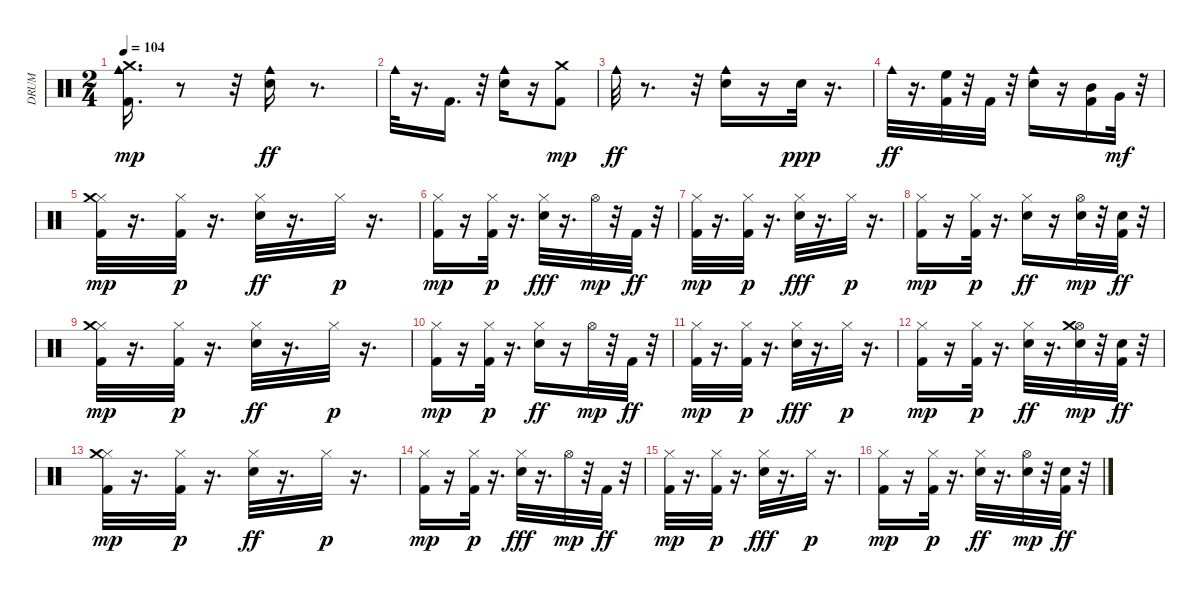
\track ("DRUM    " "DRUM    ") {instrument percussion}
\staff {score}
\articulation defaults
\ts (2 4)
\tempo 104
\clef neutral
\ks c
("Cowbell medium (hit)" "Kick (hit) 2" "Crash medium (hit)").16{d dy mp} r.8 r.32 ("Cowbell medium (hit)" "Snare (hit) 2").16{dy ff} r.8{d} |
"Cowbell medium (hit)".32 r.16{d} "Kick (hit) 2".16{d} r.32 ("Cowbell medium (hit)" "Snare (hit) 2").16 r.16 ("Kick (hit) 2" "Crash medium (hit)").8{dy mp} |
"Cowbell medium (hit)".32{dy ff} r.8{d} r.32 ("Cowbell medium (hit)" "Snare (hit) 2").16 r.16 "Snare (hit) 2".32{dy ppp} r.16{d} |
"Cowbell medium (hit)".32{dy ff} r.16{d} ("Kick (hit) 2" "High Floor Tom (hit)").32 r.32 "Kick (hit) 2".32 r.32 ("Cowbell medium (hit)" "Snare (hit) 2").16 r.16 ("Kick (hit) 2" "Mid Tom (hit)").16 "Very Low Tom (hit)".32{dy mf} r.32 |
("Kick (hit) 2" "Hi-Hat (closed)" "Crash medium (hit)").32{dy mp} r.16{d} ("Kick (hit) 2" "Hi-Hat (closed)").32{dy p} r.16{d} ("Hi-Hat (closed)" "Snare (hit) 2").32{dy ff} r.16{d} "Hi-Hat (closed)".32{dy p} r.16{d} |
("Kick (hit) 2" "Hi-Hat (closed)").16{dy mp} r.16 ("Kick (hit) 2" "Hi-Hat (closed)").32{dy p} r.16{d} ("Hi-Hat (closed)" "Snare (hit) 2").32{dy fff} r.16{d} "Hi-Hat (open)".32{dy mp} r.32 "Kick (hit) 2".32{dy ff} r.32 |
("Kick (hit) 2" "Hi-Hat (closed)").32{dy mp} r.16{d} ("Kick (hit) 2" "Hi-Hat (closed)").32{dy p} r.16{d} ("Hi-Hat (closed)" "Snare (hit) 2").32{dy fff} r.16{d} "Hi-Hat (closed)".32{dy p} r.16{d} |
("Kick (hit) 2" "Hi-Hat (closed)").16{dy mp} r.16 ("Kick (hit) 2" "Hi-Hat (closed)").32{dy p} r.16{d} ("Hi-Hat (closed)" "Snare (hit) 2").16{dy ff} r.16 ("Hi-Hat (open)" "Snare (hit) 2").32{dy mp} r.32 ("Kick (hit) 2" "Snare (hit) 2").32{dy ff} r.32 |
("Kick (hit) 2" "Hi-Hat (closed)" "Crash medium (hit)").32{dy mp} r.16{d} ("Kick (hit) 2" "Hi-Hat (closed)").32{dy p} r.16{d} ("Hi-Hat (closed)" "Snare (hit) 2").32{dy ff} r.16{d} "Hi-Hat (closed)".32{dy p} r.16{d} |
("Kick (hit) 2" "Hi-Hat (closed)").16{dy mp} r.16 ("Kick (hit) 2" "Hi-Hat (closed)").32{dy p} r.16{d} ("Hi-Hat (closed)" "Snare (hit) 2").16{dy ff} r.16 "Hi-Hat (open)".32{dy mp} r.32 "Kick (hit) 2".32{dy ff} r.32 |
("Kick (hit) 2" "Hi-Hat (closed)").32{dy mp} r.16{d} ("Kick (hit) 2" "Hi-Hat (closed)").32{dy p} r.16{d} ("Hi-Hat (closed)" "Snare (hit) 2").32{dy fff} r.16{d} "Hi-Hat (closed)".32{dy p} r.16{d} |
("Kick (hit) 2" "Hi-Hat (closed)").16{dy mp} r.16 ("Kick (hit) 2" "Hi-Hat (closed)").32{dy p} r.16{d} ("Hi-Hat (closed)" "Snare (hit) 2").32{dy ff} r.16{d} ("Hi-Hat (open)" "Snare (hit) 2" "Crash medium (hit)").32{dy mp} r.32 ("Kick (hit) 2" "Snare (hit) 2").32{dy ff} r.32 |
("Kick (hit) 2" "Hi-Hat (closed)" "Crash medium (hit)").32{dy mp} r.16{d} ("Kick (hit) 2" "Hi-Hat (closed)").32{dy p} r.16{d} ("Hi-Hat (closed)" "Snare (hit) 2").32{dy ff} r.16{d} "Hi-Hat (closed)".32{dy p} r.16{d} |
("Kick (hit) 2" "Hi-Hat (closed)").16{dy mp} r.16 ("Kick (hit) 2" "Hi-Hat (closed)").32{dy p} r.16{d} ("Hi-Hat (closed)" "Snare (hit) 2").32{dy fff} r.16{d} "Hi-Hat (open)".32{dy mp} r.32 "Kick (hit) 2".32{dy ff} r.32 |
("Kick (hit) 2" "Hi-Hat (closed)").32{dy mp} r.16{d} ("Kick (hit) 2" "Hi-Hat (closed)").32{dy p} r.16{d} ("Hi-Hat (closed)" "Snare (hit) 2").32{dy fff} r.16{d} "Hi-Hat (closed)".32{dy p} r.16{d} |
("Kick (hit) 2" "Hi-Hat (closed)").16{dy mp} r.16 ("Kick (hit) 2" "Hi-Hat (closed)").32{dy p} r.16{d} ("Hi-Hat (closed)" "Snare (hit) 2").32{dy ff} r.16{d} ("Hi-Hat (open)" "Snare (hit) 2").32{dy mp} r.32 ("Kick (hit) 2" "Snare (hit) 2").32{dy ff} r.32
